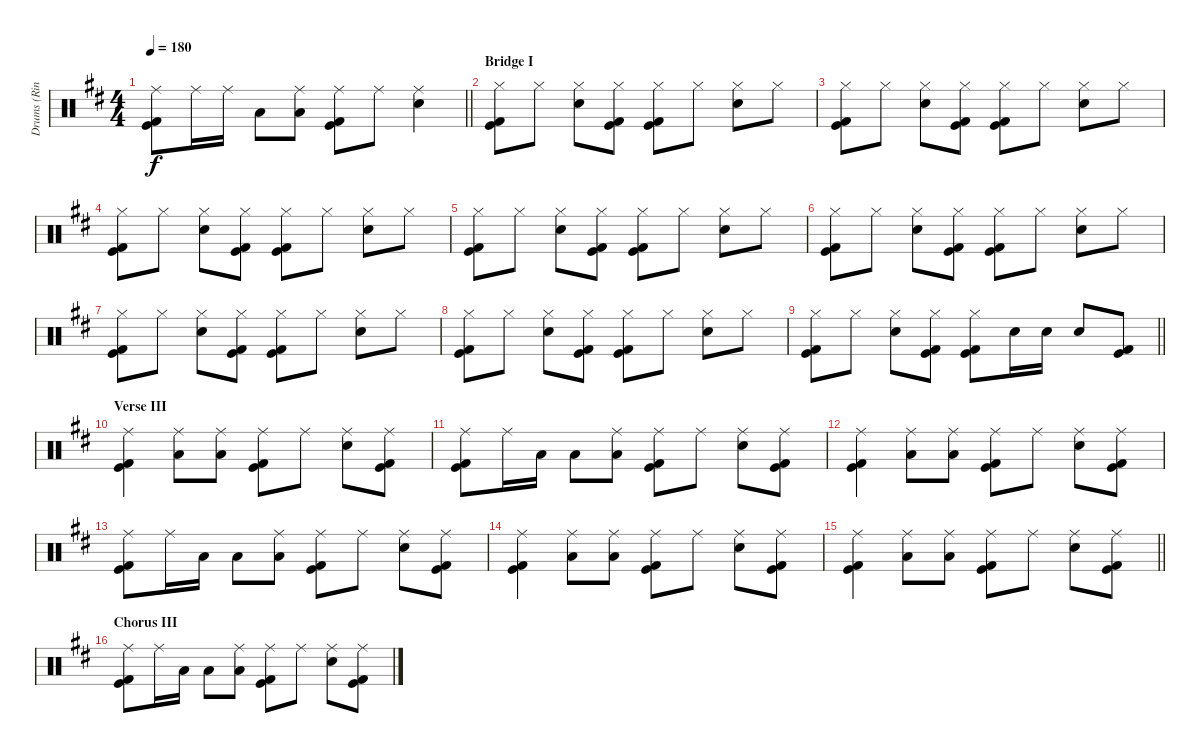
\track ("Drums (Ringo)" "Drums (Rin") {instrument percussion}
\staff {score}
\articulation defaults
\ts (4 4)
\tempo 180
\clef neutral
\barLineRight lightlight
\ks d
("Ride (middle)" "Kick (hit) 2" "Kick (hit)").8{dy f} "Ride (middle)".16 "Ride (middle)".16 "Low Tom (hit)".8 ("Ride (middle)" "Low Tom (hit)").8 ("Ride (middle)" "Kick (hit) 2" "Kick (hit)").8 "Ride (middle)".8 ("Ride (middle)" "Electric Snare (hit)").4 |
\section ("" "Bridge I")
("Hi-Hat (closed)" "Kick (hit) 2" "Kick (hit)").8 "Hi-Hat (closed)".8 ("Hi-Hat (closed)" "Electric Snare (hit)").8 ("Hi-Hat (closed)" "Kick (hit) 2" "Kick (hit)").8 ("Hi-Hat (closed)" "Kick (hit) 2" "Kick (hit)").8 "Hi-Hat (closed)".8 ("Hi-Hat (closed)" "Electric Snare (hit)").8 "Hi-Hat (closed)".8 |
("Hi-Hat (closed)" "Kick (hit) 2" "Kick (hit)").8 "Hi-Hat (closed)".8 ("Hi-Hat (closed)" "Electric Snare (hit)").8 ("Hi-Hat (closed)" "Kick (hit) 2" "Kick (hit)").8 ("Hi-Hat (closed)" "Kick (hit) 2" "Kick (hit)").8 "Hi-Hat (closed)".8 ("Hi-Hat (closed)" "Electric Snare (hit)").8 "Hi-Hat (closed)".8 |
("Hi-Hat (closed)" "Kick (hit) 2" "Kick (hit)").8 "Hi-Hat (closed)".8 ("Hi-Hat (closed)" "Electric Snare (hit)").8 ("Hi-Hat (closed)" "Kick (hit) 2" "Kick (hit)").8 ("Hi-Hat (closed)" "Kick (hit) 2" "Kick (hit)").8 "Hi-Hat (closed)".8 ("Hi-Hat (closed)" "Electric Snare (hit)").8 "Hi-Hat (closed)".8 |
("Hi-Hat (closed)" "Kick (hit) 2" "Kick (hit)").8 "Hi-Hat (closed)".8 ("Hi-Hat (closed)" "Electric Snare (hit)").8 ("Hi-Hat (closed)" "Kick (hit) 2" "Kick (hit)").8 ("Hi-Hat (closed)" "Kick (hit) 2" "Kick (hit)").8 "Hi-Hat (closed)".8 ("Hi-Hat (closed)" "Electric Snare (hit)").8 "Hi-Hat (closed)".8 |
("Hi-Hat (closed)" "Kick (hit) 2" "Kick (hit)").8 "Hi-Hat (closed)".8 ("Hi-Hat (closed)" "Electric Snare (hit)").8 ("Hi-Hat (closed)" "Kick (hit) 2" "Kick (hit)").8 ("Hi-Hat (closed)" "Kick (hit) 2" "Kick (hit)").8 "Hi-Hat (closed)".8 ("Hi-Hat (closed)" "Electric Snare (hit)").8 "Hi-Hat (closed)".8 |
("Hi-Hat (closed)" "Kick (hit) 2" "Kick (hit)").8 "Hi-Hat (closed)".8 ("Hi-Hat (closed)" "Electric Snare (hit)").8 ("Hi-Hat (closed)" "Kick (hit) 2" "Kick (hit)").8 ("Hi-Hat (closed)" "Kick (hit) 2" "Kick (hit)").8 "Hi-Hat (closed)".8 ("Hi-Hat (closed)" "Electric Snare (hit)").8 "Hi-Hat (closed)".8 |
("Hi-Hat (closed)" "Kick (hit) 2" "Kick (hit)").8 "Hi-Hat (closed)".8 ("Hi-Hat (closed)" "Electric Snare (hit)").8 ("Hi-Hat (closed)" "Kick (hit) 2" "Kick (hit)").8 ("Hi-Hat (closed)" "Kick (hit) 2" "Kick (hit)").8 "Hi-Hat (closed)".8 ("Hi-Hat (closed)" "Electric Snare (hit)").8 "Hi-Hat (closed)".8 |
\barLineRight lightlight
("Hi-Hat (closed)" "Kick (hit) 2" "Kick (hit)").8 "Hi-Hat (closed)".8 ("Hi-Hat (closed)" "Electric Snare (hit)").8 ("Hi-Hat (closed)" "Kick (hit) 2" "Kick (hit)").8 ("Hi-Hat (closed)" "Kick (hit) 2" "Kick (hit)").8 "Electric Snare (hit)".16 "Electric Snare (hit)".16 "Electric Snare (hit)".8 ("Kick (hit) 2" "Kick (hit)").8 |
\section ("" "Verse III")
("Ride (middle)" "Kick (hit) 2" "Kick (hit)").4 ("Ride (middle)" "Low Tom (hit)").8 ("Ride (middle)" "Low Tom (hit)").8 ("Ride (middle)" "Kick (hit) 2" "Kick (hit)").8 "Ride (middle)".8 ("Ride (middle)" "Electric Snare (hit)").8 ("Ride (middle)" "Kick (hit) 2" "Kick (hit)").8 |
("Ride (middle)" "Kick (hit) 2" "Kick (hit)").8 "Ride (middle)".16 "Low Tom (hit)".16 "Low Tom (hit)".8 ("Ride (middle)" "Low Tom (hit)").8 ("Ride (middle)" "Kick (hit) 2" "Kick (hit)").8 "Ride (middle)".8 ("Ride (middle)" "Electric Snare (hit)").8 ("Ride (middle)" "Kick (hit) 2" "Kick (hit)").8 |
("Ride (middle)" "Kick (hit) 2" "Kick (hit)").4 ("Ride (middle)" "Low Tom (hit)").8 ("Ride (middle)" "Low Tom (hit)").8 ("Ride (middle)" "Kick (hit) 2" "Kick (hit)").8 "Ride (middle)".8 ("Ride (middle)" "Electric Snare (hit)").8 ("Ride (middle)" "Kick (hit) 2" "Kick (hit)").8 |
("Ride (middle)" "Kick (hit) 2" "Kick (hit)").8 "Ride (middle)".16 "Low Tom (hit)".16 "Low Tom (hit)".8 ("Ride (middle)" "Low Tom (hit)").8 ("Ride (middle)" "Kick (hit) 2" "Kick (hit)").8 "Ride (middle)".8 ("Ride (middle)" "Electric Snare (hit)").8 ("Ride (middle)" "Kick (hit) 2" "Kick (hit)").8 |
("Ride (middle)" "Kick (hit) 2" "Kick (hit)").4 ("Ride (middle)" "Low Tom (hit)").8 ("Ride (middle)" "Low Tom (hit)").8 ("Ride (middle)" "Kick (hit) 2" "Kick (hit)").8 "Ride (middle)".8 ("Ride (middle)" "Electric Snare (hit)").8 ("Ride (middle)" "Kick (hit) 2" "Kick (hit)").8 |
\barLineRight lightlight
("Ride (middle)" "Kick (hit) 2" "Kick (hit)").4 ("Ride (middle)" "Low Tom (hit)").8 ("Ride (middle)" "Low Tom (hit)").8 ("Ride (middle)" "Kick (hit) 2" "Kick (hit)").8 "Ride (middle)".8 ("Ride (middle)" "Electric Snare (hit)").8 ("Ride (middle)" "Kick (hit) 2" "Kick (hit)").8 |
\section ("" "Chorus III")
("Ride (middle)" "Kick (hit) 2" "Kick (hit)").8 "Ride (middle)".16 "Low Tom (hit)".16 "Low Tom (hit)".8 ("Ride (middle)" "Low Tom (hit)").8 ("Ride (middle)" "Kick (hit) 2" "Kick (hit)").8 "Ride (middle)".8 ("Ride (middle)" "Electric Snare (hit)").8 ("Ride (middle)" "Kick (hit) 2" "Kick (hit)").8
